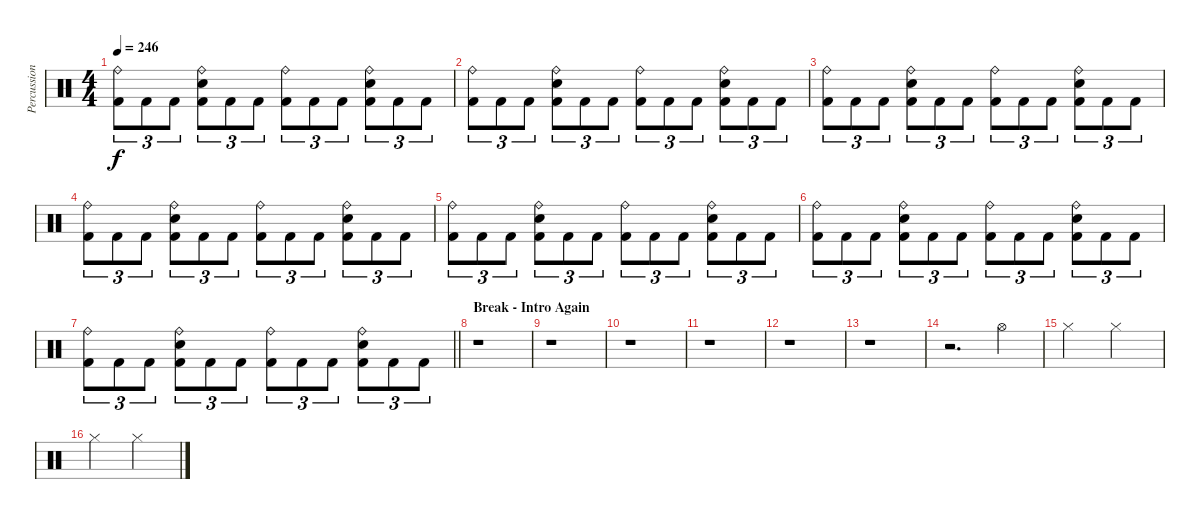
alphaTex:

\track ("Percussions" "Percussion") {instrument percussion}
\staff {score}
\articulation defaults
\ts (4 4)
\tempo 246
\clef neutral
\ks c
("Ride (bell)" "Kick (hit) 2").8{tu (3 2) dy f} "Kick (hit) 2".8{tu (3 2)} "Kick (hit) 2".8{tu (3 2)} ("Ride (bell)" "Electric Snare (hit)" "Kick (hit) 2").8{tu (3 2)} "Kick (hit) 2".8{tu (3 2)} "Kick (hit) 2".8{tu (3 2)} ("Ride (bell)" "Kick (hit) 2").8{tu (3 2)} "Kick (hit) 2".8{tu (3 2)} "Kick (hit) 2".8{tu (3 2)} ("Ride (bell)" "Electric Snare (hit)" "Kick (hit) 2").8{tu (3 2)} "Kick (hit) 2".8{tu (3 2)} "Kick (hit) 2".8{tu (3 2)} |
("Ride (bell)" "Kick (hit) 2").8{tu (3 2)} "Kick (hit) 2".8{tu (3 2)} "Kick (hit) 2".8{tu (3 2)} ("Ride (bell)" "Electric Snare (hit)" "Kick (hit) 2").8{tu (3 2)} "Kick (hit) 2".8{tu (3 2)} "Kick (hit) 2".8{tu (3 2)} ("Ride (bell)" "Kick (hit) 2").8{tu (3 2)} "Kick (hit) 2".8{tu (3 2)} "Kick (hit) 2".8{tu (3 2)} ("Ride (bell)" "Electric Snare (hit)" "Kick (hit) 2").8{tu (3 2)} "Kick (hit) 2".8{tu (3 2)} "Kick (hit) 2".8{tu (3 2)} |
("Ride (bell)" "Kick (hit) 2").8{tu (3 2)} "Kick (hit) 2".8{tu (3 2)} "Kick (hit) 2".8{tu (3 2)} ("Ride (bell)" "Electric Snare (hit)" "Kick (hit) 2").8{tu (3 2)} "Kick (hit) 2".8{tu (3 2)} "Kick (hit) 2".8{tu (3 2)} ("Ride (bell)" "Kick (hit) 2").8{tu (3 2)} "Kick (hit) 2".8{tu (3 2)} "Kick (hit) 2".8{tu (3 2)} ("Ride (bell)" "Electric Snare (hit)" "Kick (hit) 2").8{tu (3 2)} "Kick (hit) 2".8{tu (3 2)} "Kick (hit) 2".8{tu (3 2)} |
("Ride (bell)" "Kick (hit) 2").8{tu (3 2)} "Kick (hit) 2".8{tu (3 2)} "Kick (hit) 2".8{tu (3 2)} ("Ride (bell)" "Electric Snare (hit)" "Kick (hit) 2").8{tu (3 2)} "Kick (hit) 2".8{tu (3 2)} "Kick (hit) 2".8{tu (3 2)} ("Ride (bell)" "Kick (hit) 2").8{tu (3 2)} "Kick (hit) 2".8{tu (3 2)} "Kick (hit) 2".8{tu (3 2)} ("Ride (bell)" "Electric Snare (hit)" "Kick (hit) 2").8{tu (3 2)} "Kick (hit) 2".8{tu (3 2)} "Kick (hit) 2".8{tu (3 2)} |
("Ride (bell)" "Kick (hit) 2").8{tu (3 2)} "Kick (hit) 2".8{tu (3 2)} "Kick (hit) 2".8{tu (3 2)} ("Ride (bell)" "Electric Snare (hit)" "Kick (hit) 2").8{tu (3 2)} "Kick (hit) 2".8{tu (3 2)} "Kick (hit) 2".8{tu (3 2)} ("Ride (bell)" "Kick (hit) 2").8{tu (3 2)} "Kick (hit) 2".8{tu (3 2)} "Kick (hit) 2".8{tu (3 2)} ("Ride (bell)" "Electric Snare (hit)" "Kick (hit) 2").8{tu (3 2)} "Kick (hit) 2".8{tu (3 2)} "Kick (hit) 2".8{tu (3 2)} |
("Ride (bell)" "Kick (hit) 2").8{tu (3 2)} "Kick (hit) 2".8{tu (3 2)} "Kick (hit) 2".8{tu (3 2)} ("Ride (bell)" "Electric Snare (hit)" "Kick (hit) 2").8{tu (3 2)} "Kick (hit) 2".8{tu (3 2)} "Kick (hit) 2".8{tu (3 2)} ("Ride (bell)" "Kick (hit) 2").8{tu (3 2)} "Kick (hit) 2".8{tu (3 2)} "Kick (hit) 2".8{tu (3 2)} ("Ride (bell)" "Electric Snare (hit)" "Kick (hit) 2").8{tu (3 2)} "Kick (hit) 2".8{tu (3 2)} "Kick (hit) 2".8{tu (3 2)} |
\barLineRight lightlight
("Ride (bell)" "Kick (hit) 2").8{tu (3 2)} "Kick (hit) 2".8{tu (3 2)} "Kick (hit) 2".8{tu (3 2)} ("Ride (bell)" "Electric Snare (hit)" "Kick (hit) 2").8{tu (3 2)} "Kick (hit) 2".8{tu (3 2)} "Kick (hit) 2".8{tu (3 2)} ("Ride (bell)" "Kick (hit) 2").8{tu (3 2)} "Kick (hit) 2".8{tu (3 2)} "Kick (hit) 2".8{tu (3 2)} ("Ride (bell)" "Electric Snare (hit)" "Kick (hit) 2").8{tu (3 2)} "Kick (hit) 2".8{tu (3 2)} "Kick (hit) 2".8{tu (3 2)} |
\section ("" "Break - Intro Again")
r.1 |
r.1 |
r.1 |
r.1 |
r.1 |
r.1 |
r.2{d} "Hi-Hat (open)".4 |
"Hi-Hat (closed)".2 "Hi-Hat (closed)".2 |
"Hi-Hat (closed)".2 "Hi-Hat (closed)".2
